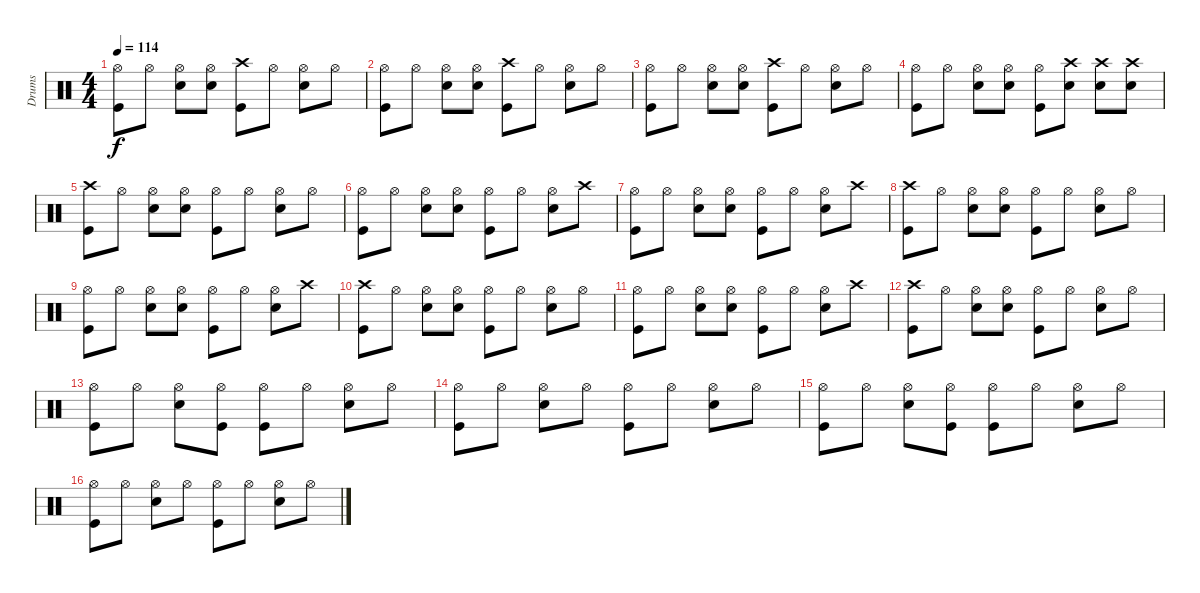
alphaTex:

\track ("Drums" "Drums") {instrument percussion}
\staff {score}
\articulation defaults
\ts (4 4)
\tempo 114
\clef neutral
\ks c
("Hi-Hat (open)" "Kick (hit)").8{dy f} "Hi-Hat (open)".8 ("Hi-Hat (open)" "Snare (hit) 2").8 ("Hi-Hat (open)" "Snare (hit) 2").8 ("Crash high (hit)" "Kick (hit)").8 "Hi-Hat (open)".8 ("Hi-Hat (open)" "Snare (hit) 2").8 "Hi-Hat (open)".8 |
("Hi-Hat (open)" "Kick (hit)").8 "Hi-Hat (open)".8 ("Hi-Hat (open)" "Snare (hit) 2").8 ("Hi-Hat (open)" "Snare (hit) 2").8 ("Crash high (hit)" "Kick (hit)").8 "Hi-Hat (open)".8 ("Hi-Hat (open)" "Snare (hit) 2").8 "Hi-Hat (open)".8 |
("Hi-Hat (open)" "Kick (hit)").8 "Hi-Hat (open)".8 ("Hi-Hat (open)" "Snare (hit) 2").8 ("Hi-Hat (open)" "Snare (hit) 2").8 ("Crash high (hit)" "Kick (hit)").8 "Hi-Hat (open)".8 ("Hi-Hat (open)" "Snare (hit) 2").8 "Hi-Hat (open)".8 |
("Hi-Hat (open)" "Kick (hit)").8 "Hi-Hat (open)".8 ("Hi-Hat (open)" "Snare (hit) 2").8 ("Hi-Hat (open)" "Snare (hit) 2").8 ("Hi-Hat (open)" "Kick (hit)").8 ("Crash high (hit)" "Snare (hit) 2").8 ("Crash high (hit)" "Snare (hit) 2").8 ("Crash high (hit)" "Snare (hit) 2").8 |
("Crash high (hit)" "Kick (hit)").8 "Hi-Hat (open)".8 ("Hi-Hat (open)" "Snare (hit) 2").8 ("Hi-Hat (open)" "Snare (hit) 2").8 ("Hi-Hat (open)" "Kick (hit)").8 "Hi-Hat (open)".8 ("Hi-Hat (open)" "Snare (hit) 2").8 "Hi-Hat (open)".8 |
("Hi-Hat (open)" "Kick (hit)").8 "Hi-Hat (open)".8 ("Hi-Hat (open)" "Snare (hit) 2").8 ("Hi-Hat (open)" "Snare (hit) 2").8 ("Hi-Hat (open)" "Kick (hit)").8 "Hi-Hat (open)".8 ("Hi-Hat (open)" "Snare (hit) 2").8 "Crash high (hit)".8 |
("Hi-Hat (open)" "Kick (hit)").8 "Hi-Hat (open)".8 ("Hi-Hat (open)" "Snare (hit) 2").8 ("Hi-Hat (open)" "Snare (hit) 2").8 ("Hi-Hat (open)" "Kick (hit)").8 "Hi-Hat (open)".8 ("Hi-Hat (open)" "Snare (hit) 2").8 "Crash high (hit)".8 |
("Crash high (hit)" "Kick (hit)").8 "Hi-Hat (open)".8 ("Hi-Hat (open)" "Snare (hit) 2").8 ("Hi-Hat (open)" "Snare (hit) 2").8 ("Hi-Hat (open)" "Kick (hit)").8 "Hi-Hat (open)".8 ("Hi-Hat (open)" "Snare (hit) 2").8 "Hi-Hat (open)".8 |
("Hi-Hat (open)" "Kick (hit)").8 "Hi-Hat (open)".8 ("Hi-Hat (open)" "Snare (hit) 2").8 ("Hi-Hat (open)" "Snare (hit) 2").8 ("Hi-Hat (open)" "Kick (hit)").8 "Hi-Hat (open)".8 ("Hi-Hat (open)" "Snare (hit) 2").8 "Crash high (hit)".8 |
("Crash high (hit)" "Kick (hit)").8 "Hi-Hat (open)".8 ("Hi-Hat (open)" "Snare (hit) 2").8 ("Hi-Hat (open)" "Snare (hit) 2").8 ("Hi-Hat (open)" "Kick (hit)").8 "Hi-Hat (open)".8 ("Hi-Hat (open)" "Snare (hit) 2").8 "Hi-Hat (open)".8 |
("Hi-Hat (open)" "Kick (hit)").8 "Hi-Hat (open)".8 ("Hi-Hat (open)" "Snare (hit) 2").8 ("Hi-Hat (open)" "Snare (hit) 2").8 ("Hi-Hat (open)" "Kick (hit)").8 "Hi-Hat (open)".8 ("Hi-Hat (open)" "Snare (hit) 2").8 "Crash high (hit)".8 |
("Crash high (hit)" "Kick (hit)").8 "Hi-Hat (open)".8 ("Hi-Hat (open)" "Snare (hit) 2").8 ("Hi-Hat (open)" "Snare (hit) 2").8 ("Hi-Hat (open)" "Kick (hit)").8 "Hi-Hat (open)".8 ("Hi-Hat (open)" "Snare (hit) 2").8 "Hi-Hat (open)".8 |
("Hi-Hat (open)" "Kick (hit)").8 "Hi-Hat (open)".8 ("Hi-Hat (open)" "Snare (hit) 2").8 ("Hi-Hat (open)" "Kick (hit)").8 ("Hi-Hat (open)" "Kick (hit)").8 "Hi-Hat (open)".8 ("Hi-Hat (open)" "Snare (hit) 2").8 "Hi-Hat (open)".8 |
("Hi-Hat (open)" "Kick (hit)").8 "Hi-Hat (open)".8 ("Hi-Hat (open)" "Snare (hit) 2").8 "Hi-Hat (open)".8 ("Hi-Hat (open)" "Kick (hit)").8 "Hi-Hat (open)".8 ("Hi-Hat (open)" "Snare (hit) 2").8 "Hi-Hat (open)".8 |
("Hi-Hat (open)" "Kick (hit)").8 "Hi-Hat (open)".8 ("Hi-Hat (open)" "Snare (hit) 2").8 ("Hi-Hat (open)" "Kick (hit)").8 ("Hi-Hat (open)" "Kick (hit)").8 "Hi-Hat (open)".8 ("Hi-Hat (open)" "Snare (hit) 2").8 "Hi-Hat (open)".8 |
("Hi-Hat (open)" "Kick (hit)").8 "Hi-Hat (open)".8 ("Hi-Hat (open)" "Snare (hit) 2").8 "Hi-Hat (open)".8 ("Hi-Hat (open)" "Kick (hit)").8 "Hi-Hat (open)".8 ("Hi-Hat (open)" "Snare (hit) 2").8 "Hi-Hat (open)".8
